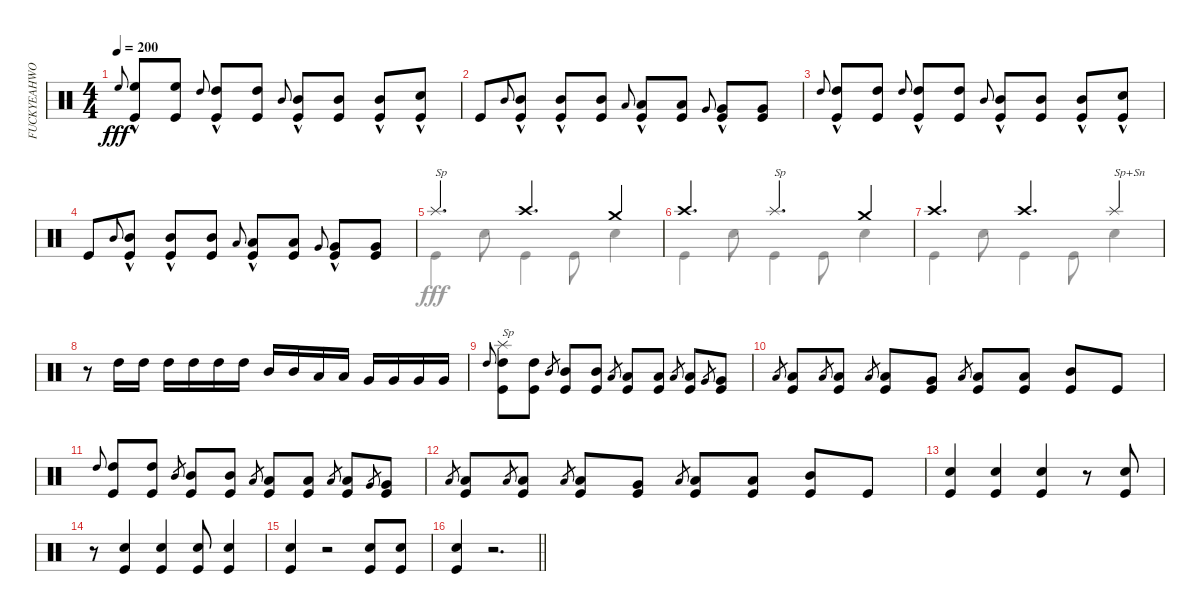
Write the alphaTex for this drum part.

\track ("FUCKYEAHWOOTDAVEMACKINTOSH!(Percussion)" "FUCKYEAHWO") {instrument percussion}
\staff {score}
\articulation defaults
\voice
\ts (4 4)
\tempo 200
\clef neutral
\ks c "High Floor Tom (hit)".8{gr onbeat dy fff}
("High Floor Tom (hit)"{hac} "Kick (hit)").8 ("High Floor Tom (hit)" "Kick (hit)").8 "High Tom (hit)".8{gr onbeat} ("High Tom (hit)"{hac} "Kick (hit)").8 ("High Tom (hit)" "Kick (hit)").8 "Mid Tom (hit)".8{gr onbeat} ("Mid Tom (hit)"{hac} "Kick (hit)").8 ("Mid Tom (hit)" "Kick (hit)").8 ("Mid Tom (hit)"{hac} "Kick (hit)").8 ("Snare (hit) 2"{hac} "Kick (hit)").8 |
"Kick (hit)".8 "Mid Tom (hit)".8{gr onbeat} ("Mid Tom (hit)"{hac} "Kick (hit)").8 ("Mid Tom (hit)"{hac} "Kick (hit)").8 ("Mid Tom (hit)" "Kick (hit)").8 "Low Tom (hit)".8{gr onbeat} ("Low Tom (hit)"{hac} "Kick (hit)").8 ("Low Tom (hit)" "Kick (hit)").8 "Very Low Tom (hit)".8{gr onbeat} ("Very Low Tom (hit)"{hac} "Kick (hit)").8 ("Very Low Tom (hit)" "Kick (hit)").8 |
"High Tom (hit)".8{gr onbeat} ("Kick (hit)" "High Tom (hit)"{hac}).8 ("Kick (hit)" "High Tom (hit)").8 "High Tom (hit)".8{gr onbeat} ("High Tom (hit)"{hac} "Kick (hit)").8 ("High Tom (hit)" "Kick (hit)").8 "Mid Tom (hit)".8{gr onbeat} ("Mid Tom (hit)"{hac} "Kick (hit)").8 ("Mid Tom (hit)" "Kick (hit)").8 ("Mid Tom (hit)"{hac} "Kick (hit)").8 ("Snare (hit) 2"{hac} "Kick (hit)").8 |
"Kick (hit)".8 "Mid Tom (hit)".8{gr onbeat} ("Mid Tom (hit)"{hac} "Kick (hit)").8 ("Mid Tom (hit)"{hac} "Kick (hit)").8 ("Mid Tom (hit)" "Kick (hit)").8 "Low Tom (hit)".8{gr onbeat} ("Low Tom (hit)"{hac} "Kick (hit)").8 ("Low Tom (hit)" "Kick (hit)").8 "Very Low Tom (hit)".8{gr onbeat} ("Very Low Tom (hit)"{hac} "Kick (hit)").8 ("Very Low Tom (hit)" "Kick (hit)").8 |
"Splash (hit)".4{d txt "Sp"} "Crash high (hit)".4{d} "Crash medium (hit)".4 |
"Crash high (hit)".4{d} "Splash (hit)".4{d txt "Sp"} "Crash medium (hit)".4 |
"Crash high (hit)".4{d} "Crash high (hit)".4{d} "Splash (hit)".4{txt "Sp+Sn"} |
r.8 "High Tom (hit)".16 "High Tom (hit)".16 "High Tom (hit)".16 "High Tom (hit)".16 "High Tom (hit)".16 "High Tom (hit)".16 "Mid Tom (hit)".16 "Mid Tom (hit)".16 "Low Tom (hit)".16 "Low Tom (hit)".16 "Very Low Tom (hit)".16 "Very Low Tom (hit)".16 "Very Low Tom (hit)".16 "Very Low Tom (hit)".16 |
"High Tom (hit)".8{gr onbeat} ("Splash (hit)" "High Tom (hit)" "Kick (hit)").8{txt "Sp"} ("High Tom (hit)" "Kick (hit)").8 "Mid Tom (hit)".8{gr} ("Mid Tom (hit)" "Kick (hit)").8 ("Mid Tom (hit)" "Kick (hit)").8 "Low Tom (hit)".8{gr} ("Low Tom (hit)" "Kick (hit)").8 ("Low Tom (hit)" "Kick (hit)").8 "Low Tom (hit)".8{gr} ("Low Tom (hit)" "Kick (hit)").8 "Very Low Tom (hit)".8{gr} ("Very Low Tom (hit)" "Kick (hit)").8 |
"Low Floor Tom (hit)".8{gr} ("Low Floor Tom (hit)" "Kick (hit)").8 "Low Floor Tom (hit)".8{gr} ("Low Floor Tom (hit)" "Kick (hit)").8 "Low Floor Tom (hit)".8{gr} ("Low Floor Tom (hit)" "Kick (hit)").8 ("Very Low Tom (hit)" "Kick (hit)").8 "Low Floor Tom (hit)".8{gr} ("Low Floor Tom (hit)" "Kick (hit)").8 ("Low Floor Tom (hit)" "Kick (hit)").8 ("Mid Tom (hit)" "Kick (hit)").8 "Kick (hit)".8 |
"High Tom (hit)".8{gr onbeat} ("High Tom (hit)" "Kick (hit)").8 ("High Tom (hit)" "Kick (hit)").8 "Mid Tom (hit)".8{gr} ("Mid Tom (hit)" "Kick (hit)").8 ("Mid Tom (hit)" "Kick (hit)").8 "Low Tom (hit)".8{gr} ("Low Tom (hit)" "Kick (hit)").8 ("Low Tom (hit)" "Kick (hit)").8 "Low Tom (hit)".8{gr} ("Low Tom (hit)" "Kick (hit)").8 "Very Low Tom (hit)".8{gr} ("Very Low Tom (hit)" "Kick (hit)").8 |
"Low Floor Tom (hit)".8{gr} ("Low Floor Tom (hit)" "Kick (hit)").8 "Low Floor Tom (hit)".8{gr} ("Low Floor Tom (hit)" "Kick (hit)").8 "Low Floor Tom (hit)".8{gr} ("Low Floor Tom (hit)" "Kick (hit)").8 ("Very Low Tom (hit)" "Kick (hit)").8 "Low Floor Tom (hit)".8{gr} ("Low Floor Tom (hit)" "Kick (hit)").8 ("Low Floor Tom (hit)" "Kick (hit)").8 ("Mid Tom (hit)" "Kick (hit)").8 "Kick (hit)".8 |
("Kick (hit)" "Snare (hit) 2").4 ("Snare (hit) 2" "Kick (hit)").4 ("Snare (hit) 2" "Kick (hit)").4 r.8 ("Snare (hit) 2" "Kick (hit)").8 |
r.8 ("Snare (hit) 2" "Kick (hit)").4 ("Snare (hit) 2" "Kick (hit)").4 ("Snare (hit) 2" "Kick (hit)").8 ("Snare (hit) 2" "Kick (hit)").4 |
("Snare (hit) 2" "Kick (hit)").4 r.2 ("Snare (hit) 2" "Kick (hit)").8 ("Snare (hit) 2" "Kick (hit)").8 |
\barLineRight lightlight
("Snare (hit) 2" "Kick (hit)").4 r.2{d}
\voice
\clef neutral
\ottava regular
\simile none
\ks c
|
|
|
|
"Kick (hit)".4 "Snare (hit) 2".8 "Kick (hit)".4 "Kick (hit)".8 "Snare (hit) 2".4 |
"Kick (hit)".4 "Snare (hit) 2".8 "Kick (hit)".4 "Kick (hit)".8 "Snare (hit) 2".4 |
"Kick (hit)".4 "Snare (hit) 2".8 "Kick (hit)".4 "Kick (hit)".8 "Snare (hit) 2".4 |
|
|
|
|
|
|
|
|
\barLineRight lightlight
